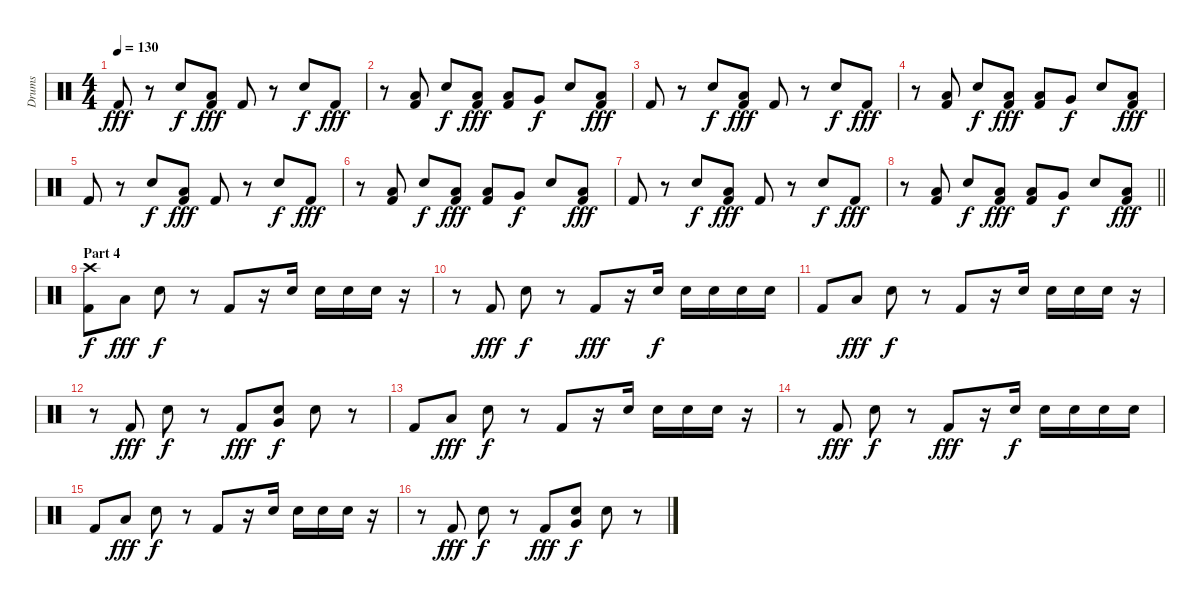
\track ("Drums" "Drums") {instrument percussion}
\staff {score}
\articulation defaults
\ts (4 4)
\tempo 130
\clef neutral
\ks c "Kick (hit) 2".8{dy fff}
r.8 "Electric Snare (hit)".8{dy f} ("Low Floor Tom (hit)" "Kick (hit) 2").8{dy fff} "Kick (hit) 2".8 r.8 "Electric Snare (hit)".8{dy f} "Kick (hit) 2".8{dy fff} |
r.8 ("Low Floor Tom (hit)" "Kick (hit) 2").8 "Electric Snare (hit)".8{dy f} ("Low Floor Tom (hit)" "Kick (hit) 2").8{dy fff} ("Low Floor Tom (hit)" "Kick (hit) 2").8 "Very Low Tom (hit)".8{dy f} "Electric Snare (hit)".8 ("Low Floor Tom (hit)" "Kick (hit) 2").8{dy fff} |
"Kick (hit) 2".8 r.8 "Electric Snare (hit)".8{dy f} ("Low Floor Tom (hit)" "Kick (hit) 2").8{dy fff} "Kick (hit) 2".8 r.8 "Electric Snare (hit)".8{dy f} "Kick (hit) 2".8{dy fff} |
r.8 ("Low Floor Tom (hit)" "Kick (hit) 2").8 "Electric Snare (hit)".8{dy f} ("Low Floor Tom (hit)" "Kick (hit) 2").8{dy fff} ("Low Floor Tom (hit)" "Kick (hit) 2").8 "Very Low Tom (hit)".8{dy f} "Electric Snare (hit)".8 ("Low Floor Tom (hit)" "Kick (hit) 2").8{dy fff} |
"Kick (hit) 2".8 r.8 "Electric Snare (hit)".8{dy f} ("Low Floor Tom (hit)" "Kick (hit) 2").8{dy fff} "Kick (hit) 2".8 r.8 "Electric Snare (hit)".8{dy f} "Kick (hit) 2".8{dy fff} |
r.8 ("Low Floor Tom (hit)" "Kick (hit) 2").8 "Electric Snare (hit)".8{dy f} ("Low Floor Tom (hit)" "Kick (hit) 2").8{dy fff} ("Low Floor Tom (hit)" "Kick (hit) 2").8 "Very Low Tom (hit)".8{dy f} "Electric Snare (hit)".8 ("Low Floor Tom (hit)" "Kick (hit) 2").8{dy fff} |
"Kick (hit) 2".8 r.8 "Electric Snare (hit)".8{dy f} ("Low Floor Tom (hit)" "Kick (hit) 2").8{dy fff} "Kick (hit) 2".8 r.8 "Electric Snare (hit)".8{dy f} "Kick (hit) 2".8{dy fff} |
\barLineRight lightlight
r.8 ("Low Floor Tom (hit)" "Kick (hit) 2").8 "Electric Snare (hit)".8{dy f} ("Low Floor Tom (hit)" "Kick (hit) 2").8{dy fff} ("Low Floor Tom (hit)" "Kick (hit) 2").8 "Very Low Tom (hit)".8{dy f} "Electric Snare (hit)".8 ("Low Floor Tom (hit)" "Kick (hit) 2").8{dy fff} |
\section ("" "Part 4")
("Crash high (hit)" "Kick (hit) 2").8{dy f} "Low Floor Tom (hit)".8{dy fff} "Electric Snare (hit)".8{dy f} r.8 "Kick (hit) 2".8 r.16 "Electric Snare (hit)".16 "Electric Snare (hit)".16 "Electric Snare (hit)".16 "Electric Snare (hit)".16 r.16 |
r.8 "Kick (hit) 2".8{dy fff} "Electric Snare (hit)".8{dy f} r.8 "Kick (hit) 2".8{dy fff} r.16 "Electric Snare (hit)".16{dy f} "Electric Snare (hit)".16 "Electric Snare (hit)".16 "Electric Snare (hit)".16 "Electric Snare (hit)".16 |
"Kick (hit) 2".8 "Low Floor Tom (hit)".8{dy fff} "Electric Snare (hit)".8{dy f} r.8 "Kick (hit) 2".8 r.16 "Electric Snare (hit)".16 "Electric Snare (hit)".16 "Electric Snare (hit)".16 "Electric Snare (hit)".16 r.16 |
r.8 "Kick (hit) 2".8{dy fff} "Electric Snare (hit)".8{dy f} r.8 "Kick (hit) 2".8{dy fff} ("Very Low Tom (hit)" "Electric Snare (hit)").8{dy f} "Electric Snare (hit)".8 r.8 |
"Kick (hit) 2".8 "Low Floor Tom (hit)".8{dy fff} "Electric Snare (hit)".8{dy f} r.8 "Kick (hit) 2".8 r.16 "Electric Snare (hit)".16 "Electric Snare (hit)".16 "Electric Snare (hit)".16 "Electric Snare (hit)".16 r.16 |
r.8 "Kick (hit) 2".8{dy fff} "Electric Snare (hit)".8{dy f} r.8 "Kick (hit) 2".8{dy fff} r.16 "Electric Snare (hit)".16{dy f} "Electric Snare (hit)".16 "Electric Snare (hit)".16 "Electric Snare (hit)".16 "Electric Snare (hit)".16 |
"Kick (hit) 2".8 "Low Floor Tom (hit)".8{dy fff} "Electric Snare (hit)".8{dy f} r.8 "Kick (hit) 2".8 r.16 "Electric Snare (hit)".16 "Electric Snare (hit)".16 "Electric Snare (hit)".16 "Electric Snare (hit)".16 r.16 |
r.8 "Kick (hit) 2".8{dy fff} "Electric Snare (hit)".8{dy f} r.8 "Kick (hit) 2".8{dy fff} ("Very Low Tom (hit)" "Electric Snare (hit)").8{dy f} "Electric Snare (hit)".8 r.8
